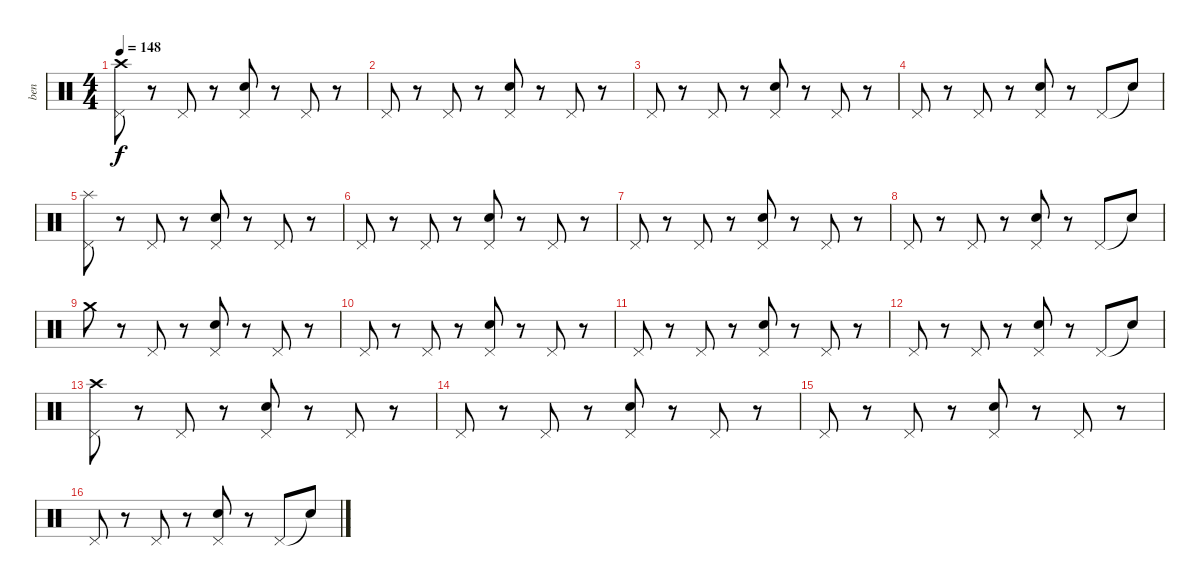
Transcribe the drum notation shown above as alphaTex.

\track ("ben" "ben") {instrument percussion}
\staff {score}
\articulation defaults
\ts (4 4)
\tempo 148
\clef neutral
\ks c
("Crash high (hit)" "Pedal Hi-Hat (hit)").8{dy f} r.8 "Pedal Hi-Hat (hit)".8 r.8 ("Electric Snare (hit)" "Pedal Hi-Hat (hit)").8 r.8 "Pedal Hi-Hat (hit)".8 r.8 |
"Pedal Hi-Hat (hit)".8 r.8 "Pedal Hi-Hat (hit)".8 r.8 ("Electric Snare (hit)" "Pedal Hi-Hat (hit)").8 r.8 "Pedal Hi-Hat (hit)".8 r.8 |
"Pedal Hi-Hat (hit)".8 r.8 "Pedal Hi-Hat (hit)".8 r.8 ("Electric Snare (hit)" "Pedal Hi-Hat (hit)").8 r.8 "Pedal Hi-Hat (hit)".8 r.8 |
"Pedal Hi-Hat (hit)".8 r.8 "Pedal Hi-Hat (hit)".8 r.8 ("Electric Snare (hit)" "Pedal Hi-Hat (hit)").8 r.8 "Pedal Hi-Hat (hit)".8 "Snare (hit)"{t}.8 |
("Splash (hit)" "Pedal Hi-Hat (hit)").8 r.8 "Pedal Hi-Hat (hit)".8 r.8 ("Electric Snare (hit)" "Pedal Hi-Hat (hit)").8 r.8 "Pedal Hi-Hat (hit)".8 r.8 |
"Pedal Hi-Hat (hit)".8 r.8 "Pedal Hi-Hat (hit)".8 r.8 ("Electric Snare (hit)" "Pedal Hi-Hat (hit)").8 r.8 "Pedal Hi-Hat (hit)".8 r.8 |
"Pedal Hi-Hat (hit)".8 r.8 "Pedal Hi-Hat (hit)".8 r.8 ("Electric Snare (hit)" "Pedal Hi-Hat (hit)").8 r.8 "Pedal Hi-Hat (hit)".8 r.8 |
"Pedal Hi-Hat (hit)".8 r.8 "Pedal Hi-Hat (hit)".8 r.8 ("Electric Snare (hit)" "Pedal Hi-Hat (hit)").8 r.8 "Pedal Hi-Hat (hit)".8 "Snare (hit)"{t}.8 |
"Crash medium (hit)".8 r.8 "Pedal Hi-Hat (hit)".8 r.8 ("Electric Snare (hit)" "Pedal Hi-Hat (hit)").8 r.8 "Pedal Hi-Hat (hit)".8 r.8 |
"Pedal Hi-Hat (hit)".8 r.8 "Pedal Hi-Hat (hit)".8 r.8 ("Electric Snare (hit)" "Pedal Hi-Hat (hit)").8 r.8 "Pedal Hi-Hat (hit)".8 r.8 |
"Pedal Hi-Hat (hit)".8 r.8 "Pedal Hi-Hat (hit)".8 r.8 ("Electric Snare (hit)" "Pedal Hi-Hat (hit)").8 r.8 "Pedal Hi-Hat (hit)".8 r.8 |
"Pedal Hi-Hat (hit)".8 r.8 "Pedal Hi-Hat (hit)".8 r.8 ("Electric Snare (hit)" "Pedal Hi-Hat (hit)").8 r.8 "Pedal Hi-Hat (hit)".8 "Snare (hit)"{t}.8 |
("Crash high (hit)" "Pedal Hi-Hat (hit)").8 r.8 "Pedal Hi-Hat (hit)".8 r.8 ("Electric Snare (hit)" "Pedal Hi-Hat (hit)").8 r.8 "Pedal Hi-Hat (hit)".8 r.8 |
"Pedal Hi-Hat (hit)".8 r.8 "Pedal Hi-Hat (hit)".8 r.8 ("Electric Snare (hit)" "Pedal Hi-Hat (hit)").8 r.8 "Pedal Hi-Hat (hit)".8 r.8 |
"Pedal Hi-Hat (hit)".8 r.8 "Pedal Hi-Hat (hit)".8 r.8 ("Electric Snare (hit)" "Pedal Hi-Hat (hit)").8 r.8 "Pedal Hi-Hat (hit)".8 r.8 |
"Pedal Hi-Hat (hit)".8 r.8 "Pedal Hi-Hat (hit)".8 r.8 ("Electric Snare (hit)" "Pedal Hi-Hat (hit)").8 r.8 "Pedal Hi-Hat (hit)".8 "Snare (hit)"{t}.8
